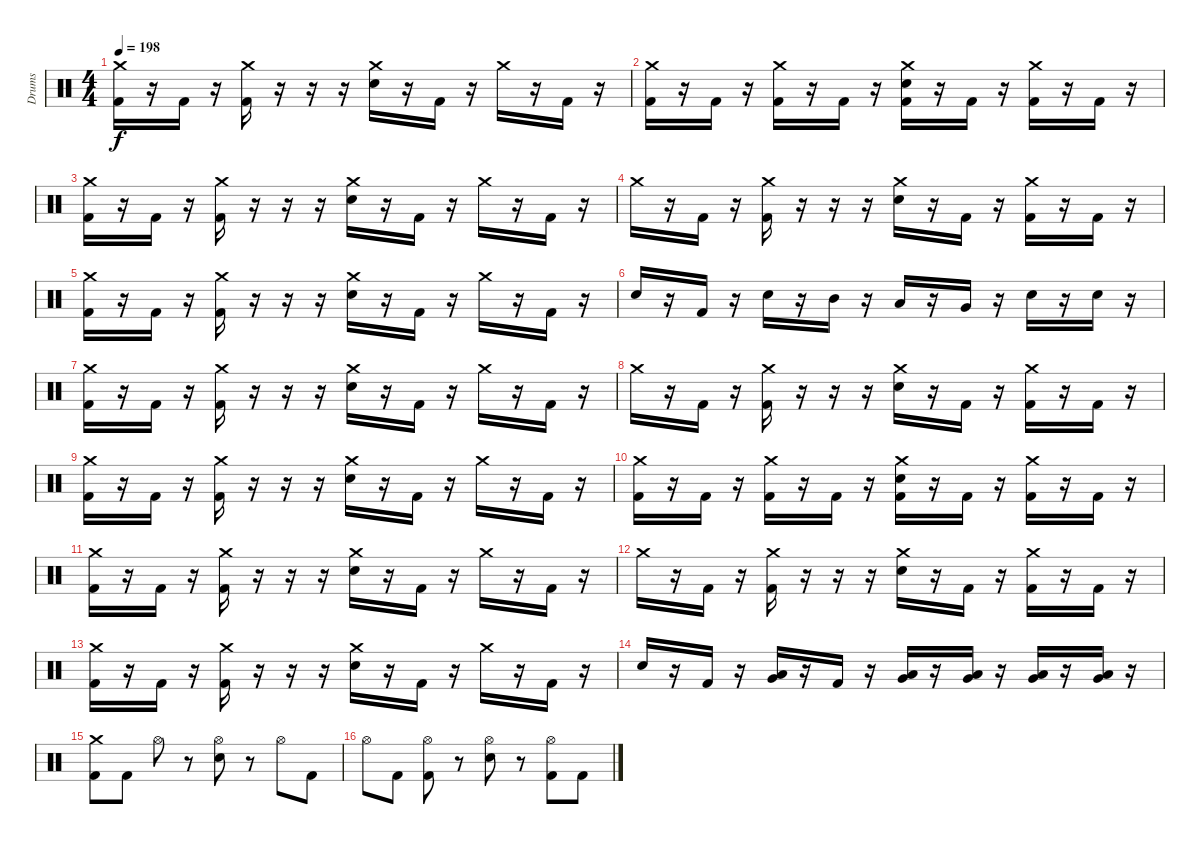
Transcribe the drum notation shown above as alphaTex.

\track ("Drums" "Drums") {instrument percussion}
\staff {score}
\articulation defaults
\ts (4 4)
\tempo 198
\clef neutral
\ks c
("Crash medium (hit)" "Kick (hit) 2").16{dy f} r.16 "Kick (hit) 2".16 r.16 ("Crash medium (hit)" "Kick (hit) 2").16 r.16 r.16 r.16 ("Crash medium (hit)" "Snare (hit) 2").16 r.16 "Kick (hit) 2".16 r.16 "Crash medium (hit)".16 r.16 "Kick (hit) 2".16 r.16 |
("Crash medium (hit)" "Kick (hit) 2").16 r.16 "Kick (hit) 2".16 r.16 ("Crash medium (hit)" "Kick (hit) 2").16 r.16 "Kick (hit) 2".16 r.16 ("Crash medium (hit)" "Snare (hit) 2" "Kick (hit) 2").16 r.16 "Kick (hit) 2".16 r.16 ("Crash medium (hit)" "Kick (hit) 2").16 r.16 "Kick (hit) 2".16 r.16 |
("Crash medium (hit)" "Kick (hit) 2").16 r.16 "Kick (hit) 2".16 r.16 ("Crash medium (hit)" "Kick (hit) 2").16 r.16 r.16 r.16 ("Crash medium (hit)" "Snare (hit) 2").16 r.16 "Kick (hit) 2".16 r.16 "Crash medium (hit)".16 r.16 "Kick (hit) 2".16 r.16 |
"Crash medium (hit)".16 r.16 "Kick (hit) 2".16 r.16 ("Crash medium (hit)" "Kick (hit) 2").16 r.16 r.16 r.16 ("Crash medium (hit)" "Snare (hit) 2").16 r.16 "Kick (hit) 2".16 r.16 ("Crash medium (hit)" "Kick (hit) 2").16 r.16 "Kick (hit) 2".16 r.16 |
("Crash medium (hit)" "Kick (hit) 2").16 r.16 "Kick (hit) 2".16 r.16 ("Crash medium (hit)" "Kick (hit) 2").16 r.16 r.16 r.16 ("Crash medium (hit)" "Snare (hit) 2").16 r.16 "Kick (hit) 2".16 r.16 "Crash medium (hit)".16 r.16 "Kick (hit) 2".16 r.16 |
"Snare (hit) 2".16 r.16 "Kick (hit) 2".16 r.16 "Snare (hit) 2".16 r.16 "Mid Tom (hit)".16 r.16 "Low Tom (hit)".16 r.16 "Very Low Tom (hit)".16 r.16 "Snare (hit) 2".16 r.16 "Snare (hit) 2".16 r.16 |
("Crash medium (hit)" "Kick (hit) 2").16 r.16 "Kick (hit) 2".16 r.16 ("Crash medium (hit)" "Kick (hit) 2").16 r.16 r.16 r.16 ("Crash medium (hit)" "Snare (hit) 2").16 r.16 "Kick (hit) 2".16 r.16 "Crash medium (hit)".16 r.16 "Kick (hit) 2".16 r.16 |
"Crash medium (hit)".16 r.16 "Kick (hit) 2".16 r.16 ("Crash medium (hit)" "Kick (hit) 2").16 r.16 r.16 r.16 ("Crash medium (hit)" "Snare (hit) 2").16 r.16 "Kick (hit) 2".16 r.16 ("Crash medium (hit)" "Kick (hit) 2").16 r.16 "Kick (hit) 2".16 r.16 |
("Crash medium (hit)" "Kick (hit) 2").16 r.16 "Kick (hit) 2".16 r.16 ("Crash medium (hit)" "Kick (hit) 2").16 r.16 r.16 r.16 ("Crash medium (hit)" "Snare (hit) 2").16 r.16 "Kick (hit) 2".16 r.16 "Crash medium (hit)".16 r.16 "Kick (hit) 2".16 r.16 |
("Crash medium (hit)" "Kick (hit) 2").16 r.16 "Kick (hit) 2".16 r.16 ("Crash medium (hit)" "Kick (hit) 2").16 r.16 "Kick (hit) 2".16 r.16 ("Crash medium (hit)" "Snare (hit) 2" "Kick (hit) 2").16 r.16 "Kick (hit) 2".16 r.16 ("Crash medium (hit)" "Kick (hit) 2").16 r.16 "Kick (hit) 2".16 r.16 |
("Crash medium (hit)" "Kick (hit) 2").16 r.16 "Kick (hit) 2".16 r.16 ("Crash medium (hit)" "Kick (hit) 2").16 r.16 r.16 r.16 ("Crash medium (hit)" "Snare (hit) 2").16 r.16 "Kick (hit) 2".16 r.16 "Crash medium (hit)".16 r.16 "Kick (hit) 2".16 r.16 |
"Crash medium (hit)".16 r.16 "Kick (hit) 2".16 r.16 ("Crash medium (hit)" "Kick (hit) 2").16 r.16 r.16 r.16 ("Crash medium (hit)" "Snare (hit) 2").16 r.16 "Kick (hit) 2".16 r.16 ("Crash medium (hit)" "Kick (hit) 2").16 r.16 "Kick (hit) 2".16 r.16 |
("Crash medium (hit)" "Kick (hit) 2").16 r.16 "Kick (hit) 2".16 r.16 ("Crash medium (hit)" "Kick (hit) 2").16 r.16 r.16 r.16 ("Crash medium (hit)" "Snare (hit) 2").16 r.16 "Kick (hit) 2".16 r.16 "Crash medium (hit)".16 r.16 "Kick (hit) 2".16 r.16 |
"Snare (hit) 2".16 r.16 "Kick (hit) 2".16 r.16 ("Very Low Tom (hit)" "Low Tom (hit)").16 r.16 "Kick (hit) 2".16 r.16 ("Very Low Tom (hit)" "Low Floor Tom (hit)").16 r.16 ("Very Low Tom (hit)" "Low Floor Tom (hit)").16 r.16 ("Very Low Tom (hit)" "Low Floor Tom (hit)").16 r.16 ("Very Low Tom (hit)" "Low Floor Tom (hit)").16 r.16 |
("Crash medium (hit)" "Kick (hit) 2").8 "Kick (hit) 2".8 "Hi-Hat (open)".8 r.8 ("Hi-Hat (open)" "Snare (hit) 2").8 r.8 "Hi-Hat (open)".8 "Kick (hit) 2".8 |
"Hi-Hat (open)".8 "Kick (hit) 2".8 ("Hi-Hat (open)" "Kick (hit) 2").8 r.8 ("Hi-Hat (open)" "Snare (hit) 2").8 r.8 ("Hi-Hat (open)" "Kick (hit) 2").8 "Kick (hit) 2".8
